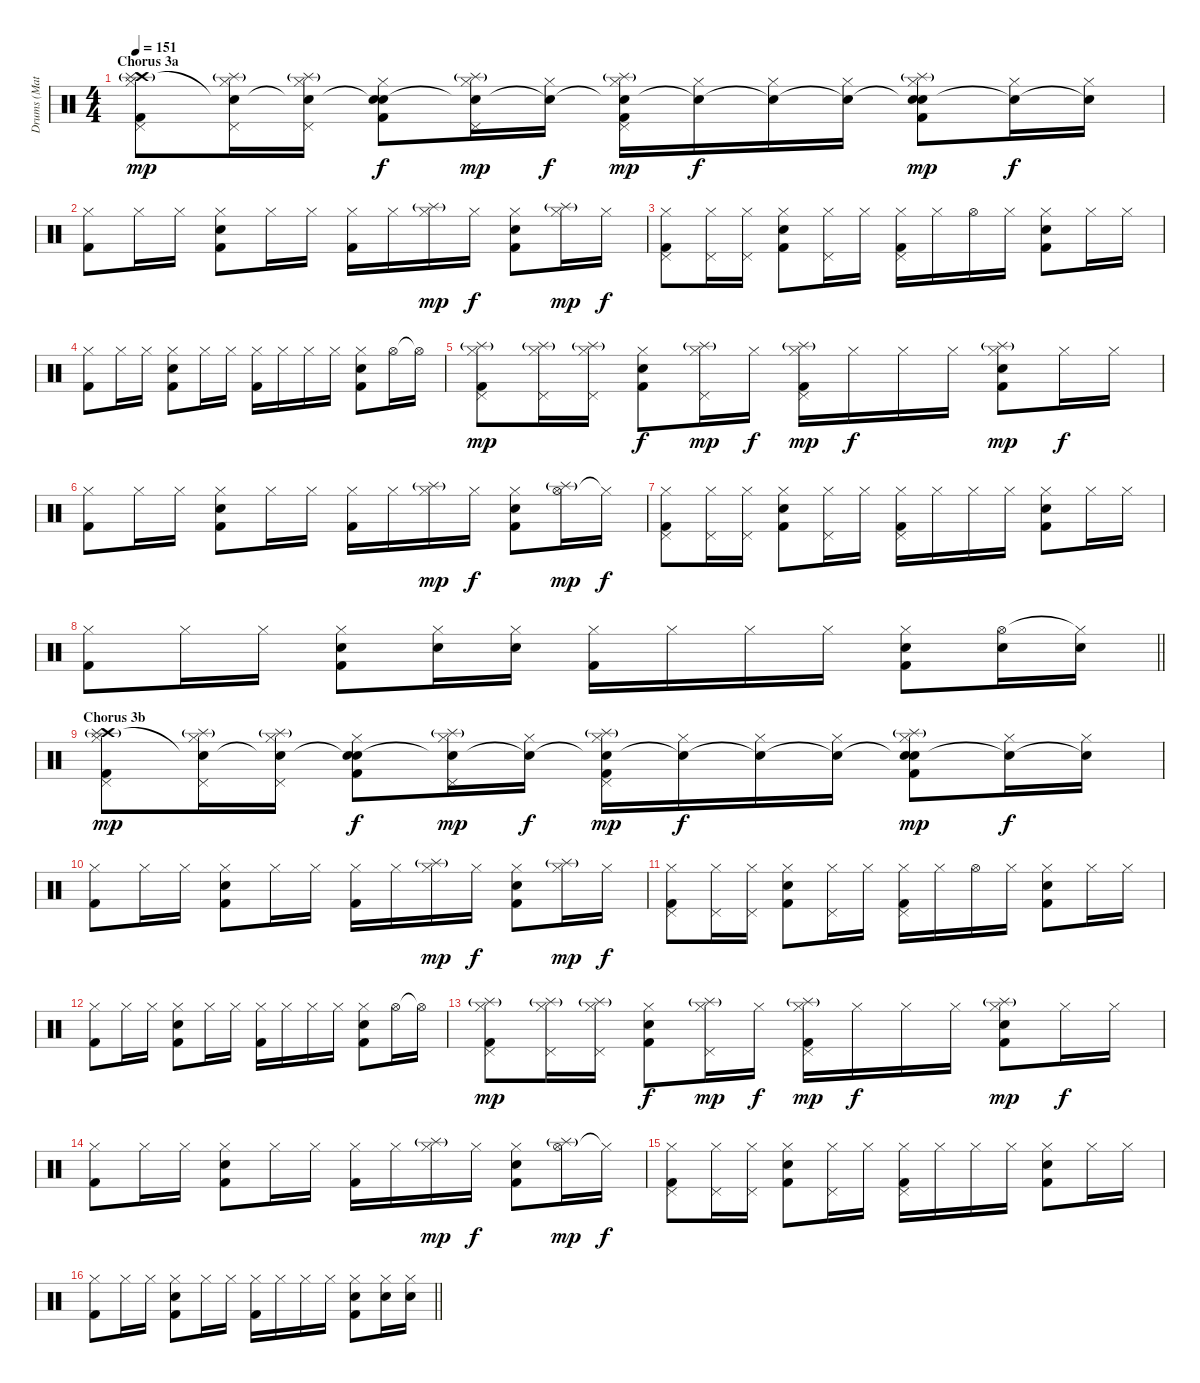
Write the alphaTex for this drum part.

\track ("Drums (Matt Tong)" "Drums (Mat") {instrument percussion}
\staff {score}
\articulation defaults
\ts (4 4)
\section ("" "Chorus 3a")
\tempo 151
\clef neutral
\ks c
("Hi-Hat (closed)" "Crash high (hit)" "Splash (hit)"{g} "Pedal Hi-Hat (hit)" "Kick (hit) 2").8{dy mp} ("Hi-Hat (closed)" "Snare (hit)"{t} "Splash (hit)"{g} "Pedal Hi-Hat (hit)").16 ("Hi-Hat (closed)" "Snare (hit)"{t} "Splash (hit)"{g} "Pedal Hi-Hat (hit)").16 ("Hi-Hat (closed)" "Snare (hit)"{t} "Electric Snare (hit)" "Kick (hit) 2").8{dy f} ("Hi-Hat (closed)" "Snare (hit)"{t} "Splash (hit)"{g} "Pedal Hi-Hat (hit)").16{dy mp} ("Hi-Hat (closed)" "Snare (hit)"{t}).16{dy f} ("Hi-Hat (closed)" "Snare (hit)"{t} "Splash (hit)"{g} "Pedal Hi-Hat (hit)" "Kick (hit) 2").16{dy mp} ("Hi-Hat (closed)" "Snare (hit)"{t}).16{dy f} ("Hi-Hat (closed)" "Snare (hit)"{t}).16 ("Hi-Hat (closed)" "Snare (hit)"{t}).16 ("Hi-Hat (closed)" "Snare (hit)"{t} "Splash (hit)"{g} "Electric Snare (hit)" "Kick (hit) 2").8{dy mp} ("Hi-Hat (closed)" "Snare (hit)"{t}).16{dy f} ("Hi-Hat (closed)" "Snare (hit)"{t}).16 |
("Hi-Hat (closed)" "Kick (hit) 2").8 "Hi-Hat (closed)".16 "Hi-Hat (closed)".16 ("Hi-Hat (closed)" "Electric Snare (hit)" "Kick (hit) 2").8 "Hi-Hat (closed)".16 "Hi-Hat (closed)".16 ("Hi-Hat (closed)" "Kick (hit) 2").16 "Hi-Hat (closed)".16 ("Hi-Hat (closed)" "Splash (hit)"{g}).16{dy mp} "Hi-Hat (closed)".16{dy f} ("Hi-Hat (closed)" "Electric Snare (hit)" "Kick (hit) 2").8 ("Hi-Hat (closed)" "Splash (hit)"{g}).16{dy mp} "Hi-Hat (closed)".16{dy f} |
("Hi-Hat (closed)" "Pedal Hi-Hat (hit)" "Kick (hit) 2").8 ("Hi-Hat (closed)" "Pedal Hi-Hat (hit)").16 ("Hi-Hat (closed)" "Pedal Hi-Hat (hit)").16 ("Hi-Hat (closed)" "Electric Snare (hit)" "Kick (hit) 2").8 ("Hi-Hat (closed)" "Pedal Hi-Hat (hit)").16 "Hi-Hat (closed)".16 ("Hi-Hat (closed)" "Pedal Hi-Hat (hit)" "Kick (hit) 2").16 "Hi-Hat (closed)".16 "Hi-Hat (open)".16 "Hi-Hat (closed)".16 ("Hi-Hat (closed)" "Electric Snare (hit)" "Kick (hit) 2").8 "Hi-Hat (closed)".16 "Hi-Hat (closed)".16 |
("Hi-Hat (closed)" "Kick (hit) 2").8 "Hi-Hat (closed)".16 "Hi-Hat (closed)".16 ("Hi-Hat (closed)" "Electric Snare (hit)" "Kick (hit) 2").8 "Hi-Hat (closed)".16 "Hi-Hat (closed)".16 ("Hi-Hat (closed)" "Kick (hit) 2").16 "Hi-Hat (closed)".16 "Hi-Hat (closed)".16 "Hi-Hat (closed)".16 ("Hi-Hat (closed)" "Electric Snare (hit)" "Kick (hit) 2").8 "Hi-Hat (open)".16 "Hi-Hat (open)"{t}.16 |
("Hi-Hat (closed)" "Splash (hit)"{g} "Pedal Hi-Hat (hit)" "Kick (hit) 2").8{dy mp} ("Hi-Hat (closed)" "Splash (hit)"{g} "Pedal Hi-Hat (hit)").16 ("Hi-Hat (closed)" "Splash (hit)"{g} "Pedal Hi-Hat (hit)").16 ("Hi-Hat (closed)" "Electric Snare (hit)" "Kick (hit) 2").8{dy f} ("Hi-Hat (closed)" "Splash (hit)"{g} "Pedal Hi-Hat (hit)").16{dy mp} "Hi-Hat (closed)".16{dy f} ("Hi-Hat (closed)" "Splash (hit)"{g} "Pedal Hi-Hat (hit)" "Kick (hit) 2").16{dy mp} "Hi-Hat (closed)".16{dy f} "Hi-Hat (closed)".16 "Hi-Hat (closed)".16 ("Hi-Hat (closed)" "Splash (hit)"{g} "Electric Snare (hit)" "Kick (hit) 2").8{dy mp} "Hi-Hat (closed)".16{dy f} "Hi-Hat (closed)".16 |
("Hi-Hat (closed)" "Kick (hit) 2").8 "Hi-Hat (closed)".16 "Hi-Hat (closed)".16 ("Hi-Hat (closed)" "Electric Snare (hit)" "Kick (hit) 2").8 "Hi-Hat (closed)".16 "Hi-Hat (closed)".16 ("Hi-Hat (closed)" "Kick (hit) 2").16 "Hi-Hat (closed)".16 ("Hi-Hat (closed)" "Splash (hit)"{g}).16{dy mp} "Hi-Hat (closed)".16{dy f} ("Hi-Hat (closed)" "Electric Snare (hit)" "Kick (hit) 2").8 ("Hi-Hat (open)" "Splash (hit)"{g}).16{dy mp} "Hi-Hat (closed)"{t}.16{dy f} |
("Hi-Hat (closed)" "Pedal Hi-Hat (hit)" "Kick (hit) 2").8 ("Hi-Hat (closed)" "Pedal Hi-Hat (hit)").16 ("Hi-Hat (closed)" "Pedal Hi-Hat (hit)").16 ("Hi-Hat (closed)" "Electric Snare (hit)" "Kick (hit) 2").8 ("Hi-Hat (closed)" "Pedal Hi-Hat (hit)").16 "Hi-Hat (closed)".16 ("Hi-Hat (closed)" "Pedal Hi-Hat (hit)" "Kick (hit) 2").16 "Hi-Hat (closed)".16 "Hi-Hat (closed)".16 "Hi-Hat (closed)".16 ("Hi-Hat (closed)" "Electric Snare (hit)" "Kick (hit) 2").8 "Hi-Hat (closed)".16 "Hi-Hat (closed)".16 |
\barLineRight lightlight
("Hi-Hat (closed)" "Kick (hit) 2").8 "Hi-Hat (closed)".16 "Hi-Hat (closed)".16 ("Hi-Hat (closed)" "Electric Snare (hit)" "Kick (hit) 2").8 ("Hi-Hat (closed)" "Electric Snare (hit)").16 ("Hi-Hat (closed)" "Electric Snare (hit)").16 ("Hi-Hat (closed)" "Kick (hit) 2").16 "Hi-Hat (closed)".16 "Hi-Hat (closed)".16 "Hi-Hat (closed)".16 ("Hi-Hat (closed)" "Electric Snare (hit)" "Kick (hit) 2").8 ("Hi-Hat (open)" "Electric Snare (hit)").16 ("Hi-Hat (closed)"{t} "Electric Snare (hit)").16 |
\section ("" "Chorus 3b")
("Hi-Hat (closed)" "Crash high (hit)" "Splash (hit)"{g} "Pedal Hi-Hat (hit)" "Kick (hit) 2").8{dy mp} ("Hi-Hat (closed)" "Snare (hit)"{t} "Splash (hit)"{g} "Pedal Hi-Hat (hit)").16 ("Hi-Hat (closed)" "Snare (hit)"{t} "Splash (hit)"{g} "Pedal Hi-Hat (hit)").16 ("Hi-Hat (closed)" "Snare (hit)"{t} "Electric Snare (hit)" "Kick (hit) 2").8{dy f} ("Hi-Hat (closed)" "Snare (hit)"{t} "Splash (hit)"{g} "Pedal Hi-Hat (hit)").16{dy mp} ("Hi-Hat (closed)" "Snare (hit)"{t}).16{dy f} ("Hi-Hat (closed)" "Snare (hit)"{t} "Splash (hit)"{g} "Pedal Hi-Hat (hit)" "Kick (hit) 2").16{dy mp} ("Hi-Hat (closed)" "Snare (hit)"{t}).16{dy f} ("Hi-Hat (closed)" "Snare (hit)"{t}).16 ("Hi-Hat (closed)" "Snare (hit)"{t}).16 ("Hi-Hat (closed)" "Snare (hit)"{t} "Splash (hit)"{g} "Electric Snare (hit)" "Kick (hit) 2").8{dy mp} ("Hi-Hat (closed)" "Snare (hit)"{t}).16{dy f} ("Hi-Hat (closed)" "Snare (hit)"{t}).16 |
("Hi-Hat (closed)" "Kick (hit) 2").8 "Hi-Hat (closed)".16 "Hi-Hat (closed)".16 ("Hi-Hat (closed)" "Electric Snare (hit)" "Kick (hit) 2").8 "Hi-Hat (closed)".16 "Hi-Hat (closed)".16 ("Hi-Hat (closed)" "Kick (hit) 2").16 "Hi-Hat (closed)".16 ("Hi-Hat (closed)" "Splash (hit)"{g}).16{dy mp} "Hi-Hat (closed)".16{dy f} ("Hi-Hat (closed)" "Electric Snare (hit)" "Kick (hit) 2").8 ("Hi-Hat (closed)" "Splash (hit)"{g}).16{dy mp} "Hi-Hat (closed)".16{dy f} |
("Hi-Hat (closed)" "Pedal Hi-Hat (hit)" "Kick (hit) 2").8 ("Hi-Hat (closed)" "Pedal Hi-Hat (hit)").16 ("Hi-Hat (closed)" "Pedal Hi-Hat (hit)").16 ("Hi-Hat (closed)" "Electric Snare (hit)" "Kick (hit) 2").8 ("Hi-Hat (closed)" "Pedal Hi-Hat (hit)").16 "Hi-Hat (closed)".16 ("Hi-Hat (closed)" "Pedal Hi-Hat (hit)" "Kick (hit) 2").16 "Hi-Hat (closed)".16 "Hi-Hat (open)".16 "Hi-Hat (closed)".16 ("Hi-Hat (closed)" "Electric Snare (hit)" "Kick (hit) 2").8 "Hi-Hat (closed)".16 "Hi-Hat (closed)".16 |
("Hi-Hat (closed)" "Kick (hit) 2").8 "Hi-Hat (closed)".16 "Hi-Hat (closed)".16 ("Hi-Hat (closed)" "Electric Snare (hit)" "Kick (hit) 2").8 "Hi-Hat (closed)".16 "Hi-Hat (closed)".16 ("Hi-Hat (closed)" "Kick (hit) 2").16 "Hi-Hat (closed)".16 "Hi-Hat (closed)".16 "Hi-Hat (closed)".16 ("Hi-Hat (closed)" "Electric Snare (hit)" "Kick (hit) 2").8 "Hi-Hat (open)".16 "Hi-Hat (open)"{t}.16 |
("Hi-Hat (closed)" "Splash (hit)"{g} "Pedal Hi-Hat (hit)" "Kick (hit) 2").8{dy mp} ("Hi-Hat (closed)" "Splash (hit)"{g} "Pedal Hi-Hat (hit)").16 ("Hi-Hat (closed)" "Splash (hit)"{g} "Pedal Hi-Hat (hit)").16 ("Hi-Hat (closed)" "Electric Snare (hit)" "Kick (hit) 2").8{dy f} ("Hi-Hat (closed)" "Splash (hit)"{g} "Pedal Hi-Hat (hit)").16{dy mp} "Hi-Hat (closed)".16{dy f} ("Hi-Hat (closed)" "Splash (hit)"{g} "Pedal Hi-Hat (hit)" "Kick (hit) 2").16{dy mp} "Hi-Hat (closed)".16{dy f} "Hi-Hat (closed)".16 "Hi-Hat (closed)".16 ("Hi-Hat (closed)" "Splash (hit)"{g} "Electric Snare (hit)" "Kick (hit) 2").8{dy mp} "Hi-Hat (closed)".16{dy f} "Hi-Hat (closed)".16 |
("Hi-Hat (closed)" "Kick (hit) 2").8 "Hi-Hat (closed)".16 "Hi-Hat (closed)".16 ("Hi-Hat (closed)" "Electric Snare (hit)" "Kick (hit) 2").8 "Hi-Hat (closed)".16 "Hi-Hat (closed)".16 ("Hi-Hat (closed)" "Kick (hit) 2").16 "Hi-Hat (closed)".16 ("Hi-Hat (closed)" "Splash (hit)"{g}).16{dy mp} "Hi-Hat (closed)".16{dy f} ("Hi-Hat (closed)" "Electric Snare (hit)" "Kick (hit) 2").8 ("Hi-Hat (open)" "Splash (hit)"{g}).16{dy mp} "Hi-Hat (closed)"{t}.16{dy f} |
("Hi-Hat (closed)" "Pedal Hi-Hat (hit)" "Kick (hit) 2").8 ("Hi-Hat (closed)" "Pedal Hi-Hat (hit)").16 ("Hi-Hat (closed)" "Pedal Hi-Hat (hit)").16 ("Hi-Hat (closed)" "Electric Snare (hit)" "Kick (hit) 2").8 ("Hi-Hat (closed)" "Pedal Hi-Hat (hit)").16 "Hi-Hat (closed)".16 ("Hi-Hat (closed)" "Pedal Hi-Hat (hit)" "Kick (hit) 2").16 "Hi-Hat (closed)".16 "Hi-Hat (closed)".16 "Hi-Hat (closed)".16 ("Hi-Hat (closed)" "Electric Snare (hit)" "Kick (hit) 2").8 "Hi-Hat (closed)".16 "Hi-Hat (closed)".16 |
\barLineRight lightlight
("Hi-Hat (closed)" "Kick (hit) 2").8 "Hi-Hat (closed)".16 "Hi-Hat (closed)".16 ("Hi-Hat (closed)" "Electric Snare (hit)" "Kick (hit) 2").8 "Hi-Hat (closed)".16 "Hi-Hat (closed)".16 ("Hi-Hat (closed)" "Kick (hit) 2").16 "Hi-Hat (closed)".16 "Hi-Hat (closed)".16 "Hi-Hat (closed)".16 ("Hi-Hat (closed)" "Electric Snare (hit)" "Kick (hit) 2").8 ("Hi-Hat (closed)" "Electric Snare (hit)").16 ("Hi-Hat (closed)" "Electric Snare (hit)").16
